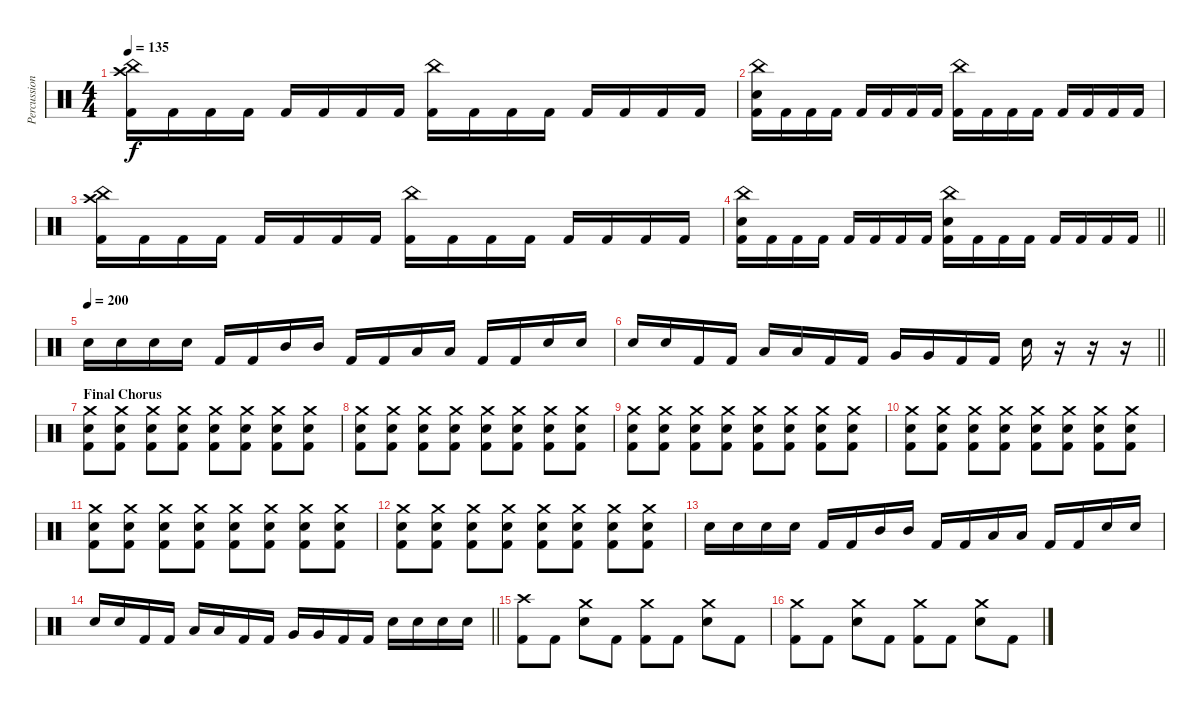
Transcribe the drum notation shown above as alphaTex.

\track ("Percussion" "Percussion") {instrument percussion}
\staff {score}
\articulation defaults
\ts (4 4)
\tempo 135
\clef neutral
\ks c
("Crash high (hit)" "China (hit)" "Kick (hit) 2").16{dy f} "Kick (hit) 2".16 "Kick (hit) 2".16 "Kick (hit) 2".16 "Kick (hit) 2".16 "Kick (hit) 2".16 "Kick (hit) 2".16 "Kick (hit) 2".16 ("China (hit)" "Kick (hit) 2").16 "Kick (hit) 2".16 "Kick (hit) 2".16 "Kick (hit) 2".16 "Kick (hit) 2".16 "Kick (hit) 2".16 "Kick (hit) 2".16 "Kick (hit) 2".16 |
("China (hit)" "Electric Snare (hit)" "Kick (hit) 2").16 "Kick (hit) 2".16 "Kick (hit) 2".16 "Kick (hit) 2".16 "Kick (hit) 2".16 "Kick (hit) 2".16 "Kick (hit) 2".16 "Kick (hit) 2".16 ("China (hit)" "Kick (hit) 2").16 "Kick (hit) 2".16 "Kick (hit) 2".16 "Kick (hit) 2".16 "Kick (hit) 2".16 "Kick (hit) 2".16 "Kick (hit) 2".16 "Kick (hit) 2".16 |
("Crash high (hit)" "China (hit)" "Kick (hit) 2").16 "Kick (hit) 2".16 "Kick (hit) 2".16 "Kick (hit) 2".16 "Kick (hit) 2".16 "Kick (hit) 2".16 "Kick (hit) 2".16 "Kick (hit) 2".16 ("China (hit)" "Kick (hit) 2").16 "Kick (hit) 2".16 "Kick (hit) 2".16 "Kick (hit) 2".16 "Kick (hit) 2".16 "Kick (hit) 2".16 "Kick (hit) 2".16 "Kick (hit) 2".16 |
\barLineRight lightlight
("China (hit)" "Electric Snare (hit)" "Kick (hit) 2").16 "Kick (hit) 2".16 "Kick (hit) 2".16 "Kick (hit) 2".16 "Kick (hit) 2".16 "Kick (hit) 2".16 "Kick (hit) 2".16 "Kick (hit) 2".16 ("China (hit)" "Electric Snare (hit)" "Kick (hit) 2").16 "Kick (hit) 2".16 "Kick (hit) 2".16 "Kick (hit) 2".16 "Kick (hit) 2".16 "Kick (hit) 2".16 "Kick (hit) 2".16 "Kick (hit) 2".16 |
\tempo (200)
"Electric Snare (hit)".16{volume 13} "Electric Snare (hit)".16 "Electric Snare (hit)".16 "Electric Snare (hit)".16 "Kick (hit) 2".16 "Kick (hit) 2".16 "Mid Tom (hit)".16 "Mid Tom (hit)".16 "Kick (hit) 2".16 "Kick (hit) 2".16 "Low Tom (hit)".16 "Low Tom (hit)".16 "Kick (hit) 2".16 "Kick (hit) 2".16 "Electric Snare (hit)".16 "Electric Snare (hit)".16 |
\barLineRight lightlight "Electric Snare (hit)".16 "Electric Snare (hit)".16 "Kick (hit) 2".16 "Kick (hit) 2".16 "Low Tom (hit)".16 "Low Tom (hit)".16 "Kick (hit) 2".16 "Kick (hit) 2".16 "Very Low Tom (hit)".16 "Very Low Tom (hit)".16 "Kick (hit) 2".16 "Kick (hit) 2".16 "Electric Snare (hit)".16
r.16 r.16 r.16 |
\section ("" "Final Chorus")
("Crash medium (hit)" "Electric Snare (hit)" "Kick (hit) 2").8 ("Crash medium (hit)" "Electric Snare (hit)" "Kick (hit) 2").8 ("Crash medium (hit)" "Electric Snare (hit)" "Kick (hit) 2").8 ("Crash medium (hit)" "Electric Snare (hit)" "Kick (hit) 2").8 ("Crash medium (hit)" "Electric Snare (hit)" "Kick (hit) 2").8 ("Crash medium (hit)" "Electric Snare (hit)" "Kick (hit) 2").8 ("Crash medium (hit)" "Electric Snare (hit)" "Kick (hit) 2").8 ("Crash medium (hit)" "Electric Snare (hit)" "Kick (hit) 2").8 |
("Crash medium (hit)" "Electric Snare (hit)" "Kick (hit) 2").8 ("Crash medium (hit)" "Electric Snare (hit)" "Kick (hit) 2").8 ("Crash medium (hit)" "Electric Snare (hit)" "Kick (hit) 2").8 ("Crash medium (hit)" "Electric Snare (hit)" "Kick (hit) 2").8 ("Crash medium (hit)" "Electric Snare (hit)" "Kick (hit) 2").8 ("Crash medium (hit)" "Electric Snare (hit)" "Kick (hit) 2").8 ("Crash medium (hit)" "Electric Snare (hit)" "Kick (hit) 2").8 ("Crash medium (hit)" "Electric Snare (hit)" "Kick (hit) 2").8 |
("Crash medium (hit)" "Electric Snare (hit)" "Kick (hit) 2").8 ("Crash medium (hit)" "Electric Snare (hit)" "Kick (hit) 2").8 ("Crash medium (hit)" "Electric Snare (hit)" "Kick (hit) 2").8 ("Crash medium (hit)" "Electric Snare (hit)" "Kick (hit) 2").8 ("Crash medium (hit)" "Electric Snare (hit)" "Kick (hit) 2").8 ("Crash medium (hit)" "Electric Snare (hit)" "Kick (hit) 2").8 ("Crash medium (hit)" "Electric Snare (hit)" "Kick (hit) 2").8 ("Crash medium (hit)" "Electric Snare (hit)" "Kick (hit) 2").8 |
("Crash medium (hit)" "Electric Snare (hit)" "Kick (hit) 2").8 ("Crash medium (hit)" "Electric Snare (hit)" "Kick (hit) 2").8 ("Crash medium (hit)" "Electric Snare (hit)" "Kick (hit) 2").8 ("Crash medium (hit)" "Electric Snare (hit)" "Kick (hit) 2").8 ("Crash medium (hit)" "Electric Snare (hit)" "Kick (hit) 2").8 ("Crash medium (hit)" "Electric Snare (hit)" "Kick (hit) 2").8 ("Crash medium (hit)" "Electric Snare (hit)" "Kick (hit) 2").8 ("Crash medium (hit)" "Electric Snare (hit)" "Kick (hit) 2").8 |
("Crash medium (hit)" "Electric Snare (hit)" "Kick (hit) 2").8 ("Crash medium (hit)" "Electric Snare (hit)" "Kick (hit) 2").8 ("Crash medium (hit)" "Electric Snare (hit)" "Kick (hit) 2").8 ("Crash medium (hit)" "Electric Snare (hit)" "Kick (hit) 2").8 ("Crash medium (hit)" "Electric Snare (hit)" "Kick (hit) 2").8 ("Crash medium (hit)" "Electric Snare (hit)" "Kick (hit) 2").8 ("Crash medium (hit)" "Electric Snare (hit)" "Kick (hit) 2").8 ("Crash medium (hit)" "Electric Snare (hit)" "Kick (hit) 2").8 |
("Crash medium (hit)" "Electric Snare (hit)" "Kick (hit) 2").8 ("Crash medium (hit)" "Electric Snare (hit)" "Kick (hit) 2").8 ("Crash medium (hit)" "Electric Snare (hit)" "Kick (hit) 2").8 ("Crash medium (hit)" "Electric Snare (hit)" "Kick (hit) 2").8 ("Crash medium (hit)" "Electric Snare (hit)" "Kick (hit) 2").8 ("Crash medium (hit)" "Electric Snare (hit)" "Kick (hit) 2").8 ("Crash medium (hit)" "Electric Snare (hit)" "Kick (hit) 2").8 ("Crash medium (hit)" "Electric Snare (hit)" "Kick (hit) 2").8 |
"Electric Snare (hit)".16 "Electric Snare (hit)".16 "Electric Snare (hit)".16 "Electric Snare (hit)".16 "Kick (hit) 2".16 "Kick (hit) 2".16 "Mid Tom (hit)".16 "Mid Tom (hit)".16 "Kick (hit) 2".16 "Kick (hit) 2".16 "Low Tom (hit)".16 "Low Tom (hit)".16 "Kick (hit) 2".16 "Kick (hit) 2".16 "Electric Snare (hit)".16 "Electric Snare (hit)".16 |
\barLineRight lightlight "Electric Snare (hit)".16 "Electric Snare (hit)".16 "Kick (hit) 2".16 "Kick (hit) 2".16 "Low Tom (hit)".16 "Low Tom (hit)".16 "Kick (hit) 2".16 "Kick (hit) 2".16 "Very Low Tom (hit)".16 "Very Low Tom (hit)".16 "Kick (hit) 2".16 "Kick (hit) 2".16 "Electric Snare (hit)".16 "Electric Snare (hit)".16 "Electric Snare (hit)".16 "Electric Snare (hit)".16
|
("Crash high (hit)" "Kick (hit) 2").8 "Kick (hit) 2".8 ("Crash medium (hit)" "Electric Snare (hit)").8 "Kick (hit) 2".8 ("Crash medium (hit)" "Kick (hit) 2").8 "Kick (hit) 2".8 ("Crash medium (hit)" "Electric Snare (hit)").8 "Kick (hit) 2".8 |
("Crash medium (hit)" "Kick (hit) 2").8 "Kick (hit) 2".8 ("Crash medium (hit)" "Electric Snare (hit)").8 "Kick (hit) 2".8 ("Crash medium (hit)" "Kick (hit) 2").8 "Kick (hit) 2".8 ("Crash medium (hit)" "Electric Snare (hit)").8 "Kick (hit) 2".8
